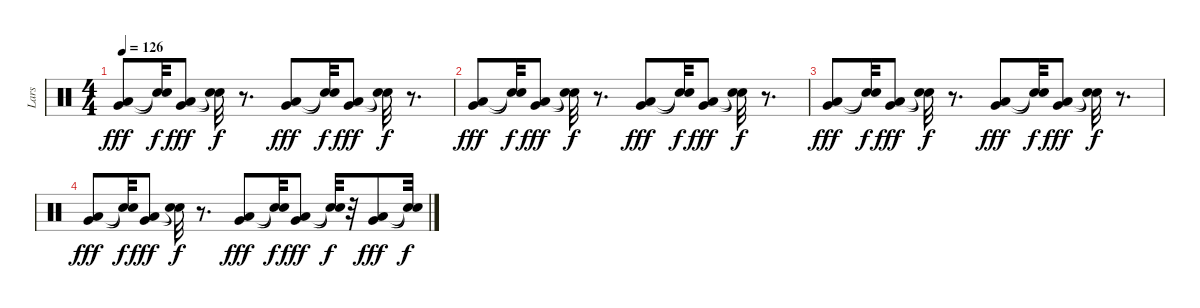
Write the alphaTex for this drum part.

\track ("Lars" "Lars") {instrument percussion bank 102}
\staff {score}
\articulation defaults
\ts (4 4)
\tempo 126
\clef neutral
\ks c
("Very Low Tom (hit)" "Low Tom (hit)").8{dy fff volume 0} ("Snare (hit)"{t} "Snare (hit)"{t}).32{dy f} ("Very Low Tom (hit)" "Low Tom (hit)").8{dy fff} ("Snare (hit)"{t} "Snare (hit)"{t}).32{dy f} r.8{d} ("Very Low Tom (hit)" "Low Tom (hit)").8{dy fff} ("Snare (hit)"{t} "Snare (hit)"{t}).32{dy f} ("Very Low Tom (hit)" "Low Tom (hit)").8{dy fff} ("Snare (hit)"{t} "Snare (hit)"{t}).32{dy f} r.8{d} |
("Very Low Tom (hit)" "Low Tom (hit)").8{dy fff} ("Snare (hit)"{t} "Snare (hit)"{t}).32{dy f} ("Very Low Tom (hit)" "Low Tom (hit)").8{dy fff} ("Snare (hit)"{t} "Snare (hit)"{t}).32{dy f} r.8{d} ("Very Low Tom (hit)" "Low Tom (hit)").8{dy fff} ("Snare (hit)"{t} "Snare (hit)"{t}).32{dy f} ("Very Low Tom (hit)" "Low Tom (hit)").8{dy fff} ("Snare (hit)"{t} "Snare (hit)"{t}).32{dy f} r.8{d} |
("Very Low Tom (hit)" "Low Tom (hit)").8{dy fff} ("Snare (hit)"{t} "Snare (hit)"{t}).32{dy f} ("Very Low Tom (hit)" "Low Tom (hit)").8{dy fff} ("Snare (hit)"{t} "Snare (hit)"{t}).32{dy f} r.8{d} ("Very Low Tom (hit)" "Low Tom (hit)").8{dy fff} ("Snare (hit)"{t} "Snare (hit)"{t}).32{dy f} ("Very Low Tom (hit)" "Low Tom (hit)").8{dy fff} ("Snare (hit)"{t} "Snare (hit)"{t}).32{dy f} r.8{d} |
("Very Low Tom (hit)" "Low Tom (hit)").8{dy fff} ("Snare (hit)"{t} "Snare (hit)"{t}).32{dy f} ("Very Low Tom (hit)" "Low Tom (hit)").8{dy fff} ("Snare (hit)"{t} "Snare (hit)"{t}).32{dy f} r.8{d} ("Very Low Tom (hit)" "Low Tom (hit)").8{dy fff} ("Snare (hit)"{t} "Snare (hit)"{t}).32{dy f} ("Very Low Tom (hit)" "Low Tom (hit)").8{dy fff} ("Snare (hit)"{t} "Snare (hit)"{t}).32{dy f} r.32 ("Very Low Tom (hit)" "Low Tom (hit)").8{dy fff} ("Snare (hit)"{t} "Snare (hit)"{t}).32{dy f}
